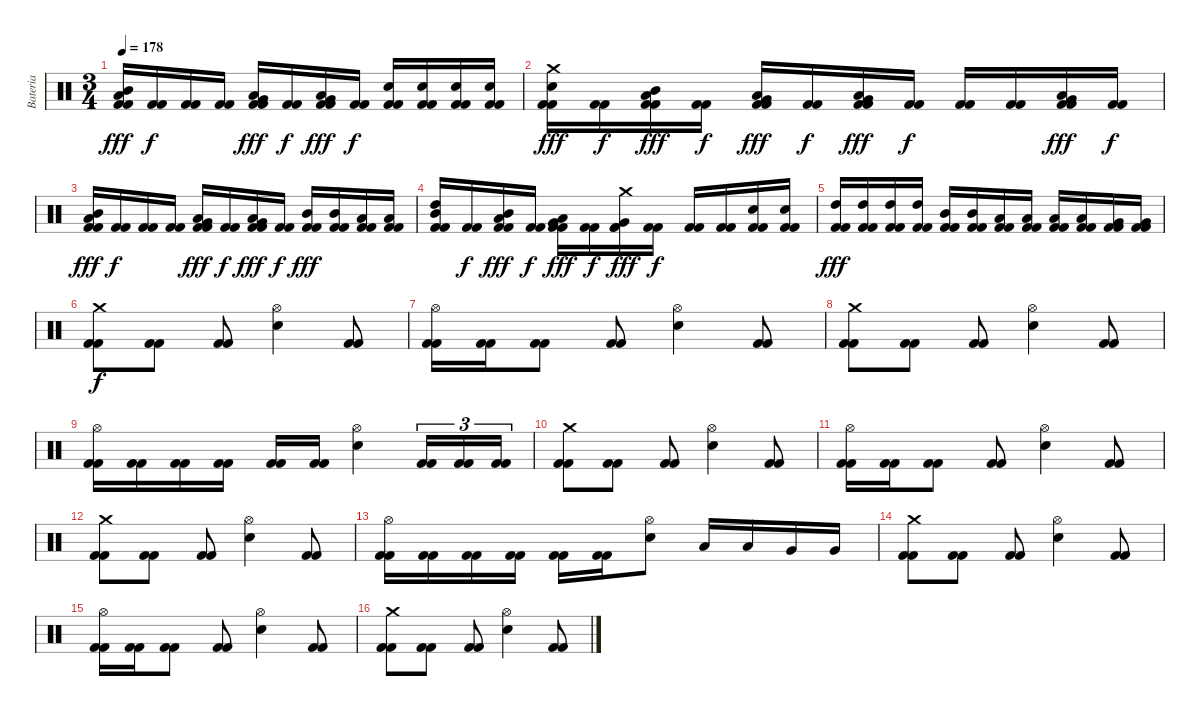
\track ("Bateria" "Bateria") {instrument percussion}
\staff {score}
\articulation defaults
\ts (3 4)
\tempo 178
\clef neutral
\ks c
("Kick (hit) 2" "Kick (hit) 2" "Low Tom (hit)" "Mid Tom (hit)").16{dy fff} ("Kick (hit) 2" "Kick (hit) 2").16{dy f} ("Kick (hit) 2" "Kick (hit) 2").16 ("Kick (hit) 2" "Kick (hit) 2").16 ("Kick (hit) 2" "Kick (hit) 2" "Very Low Tom (hit)" "Low Tom (hit)").16{dy fff} ("Kick (hit) 2" "Kick (hit) 2").16{dy f} ("Kick (hit) 2" "Kick (hit) 2" "Low Floor Tom (hit)" "Very Low Tom (hit)").16{dy fff} ("Kick (hit) 2" "Kick (hit) 2").16{dy f} ("Kick (hit) 2" "Kick (hit) 2" "Snare (hit) 2").16 ("Kick (hit) 2" "Kick (hit) 2" "Snare (hit) 2").16 ("Kick (hit) 2" "Kick (hit) 2" "Snare (hit) 2").16 ("Kick (hit) 2" "Kick (hit) 2" "Snare (hit) 2").16 |
("Kick (hit) 2" "Kick (hit) 2" "Snare (hit) 2" "Crash medium (hit)").16{dy fff} ("Kick (hit) 2" "Kick (hit) 2").16{dy f} ("Kick (hit) 2" "Kick (hit) 2" "Mid Tom (hit)" "Low Tom (hit)").16{dy fff} ("Kick (hit) 2" "Kick (hit) 2").16{dy f} ("Kick (hit) 2" "Kick (hit) 2" "Low Tom (hit)" "Very Low Tom (hit)").16{dy fff} ("Kick (hit) 2" "Kick (hit) 2").16{dy f} ("Kick (hit) 2" "Kick (hit) 2" "Very Low Tom (hit)" "Low Floor Tom (hit)").16{dy fff} ("Kick (hit) 2" "Kick (hit) 2").16{dy f} ("Kick (hit) 2" "Kick (hit) 2").16 ("Kick (hit) 2" "Kick (hit) 2").16 ("Kick (hit) 2" "Kick (hit) 2" "Very Low Tom (hit)" "Low Tom (hit)").16{dy fff} ("Kick (hit) 2" "Kick (hit) 2").16{dy f} |
("Kick (hit) 2" "Kick (hit) 2" "Low Tom (hit)" "Mid Tom (hit)").16{dy fff} ("Kick (hit) 2" "Kick (hit) 2").16{dy f} ("Kick (hit) 2" "Kick (hit) 2").16 ("Kick (hit) 2" "Kick (hit) 2").16 ("Kick (hit) 2" "Kick (hit) 2" "Very Low Tom (hit)" "Low Tom (hit)").16{dy fff} ("Kick (hit) 2" "Kick (hit) 2").16{dy f} ("Kick (hit) 2" "Kick (hit) 2" "Low Floor Tom (hit)" "Very Low Tom (hit)").16{dy fff} ("Kick (hit) 2" "Kick (hit) 2").16{dy f} ("Kick (hit) 2" "Kick (hit) 2" "Mid Tom (hit)").16{dy fff} ("Kick (hit) 2" "Kick (hit) 2" "Mid Tom (hit)").16 ("Kick (hit) 2" "Kick (hit) 2" "Low Tom (hit)").16 ("Kick (hit) 2" "Kick (hit) 2" "Low Tom (hit)").16 |
("Kick (hit) 2" "Kick (hit) 2" "High Tom (hit)" "Mid Tom (hit)").16 ("Kick (hit) 2" "Kick (hit) 2").16{dy f} ("Kick (hit) 2" "Kick (hit) 2" "Mid Tom (hit)" "Low Tom (hit)").16{dy fff} ("Kick (hit) 2" "Kick (hit) 2").16{dy f} ("Kick (hit) 2" "Kick (hit) 2" "Low Tom (hit)" "Very Low Tom (hit)").16{dy fff} ("Kick (hit) 2" "Kick (hit) 2").16{dy f} ("Kick (hit) 2" "Kick (hit) 2" "Very Low Tom (hit)" "Crash medium (hit)").16{dy fff} ("Kick (hit) 2" "Kick (hit) 2").16{dy f} ("Kick (hit) 2" "Kick (hit) 2").16 ("Kick (hit) 2" "Kick (hit) 2").16 ("Kick (hit) 2" "Kick (hit) 2" "Snare (hit) 2").16 ("Kick (hit) 2" "Kick (hit) 2" "Snare (hit) 2").16 |
("Kick (hit) 2" "Kick (hit) 2" "High Tom (hit)").16{dy fff} ("Kick (hit) 2" "Kick (hit) 2" "High Tom (hit)").16 ("Kick (hit) 2" "Kick (hit) 2" "High Tom (hit)").16 ("Kick (hit) 2" "Kick (hit) 2" "High Tom (hit)").16 ("Kick (hit) 2" "Kick (hit) 2" "Mid Tom (hit)").16 ("Kick (hit) 2" "Kick (hit) 2" "Mid Tom (hit)").16 ("Kick (hit) 2" "Kick (hit) 2" "Low Tom (hit)").16 ("Kick (hit) 2" "Kick (hit) 2" "Low Tom (hit)").16 ("Kick (hit) 2" "Kick (hit) 2" "Low Tom (hit)").16 ("Kick (hit) 2" "Kick (hit) 2" "Low Tom (hit)").16 ("Kick (hit) 2" "Kick (hit) 2" "Very Low Tom (hit)").16 ("Kick (hit) 2" "Kick (hit) 2" "Very Low Tom (hit)").16 |
("Kick (hit) 2" "Kick (hit) 2" "Crash medium (hit)").8{dy f} ("Kick (hit) 2" "Kick (hit) 2").8 ("Kick (hit) 2" "Kick (hit) 2").8 ("Snare (hit) 2" "Hi-Hat (open)").4 ("Kick (hit) 2" "Kick (hit) 2").8 |
("Kick (hit) 2" "Kick (hit) 2" "Hi-Hat (open)").16 ("Kick (hit) 2" "Kick (hit) 2").16 ("Kick (hit) 2" "Kick (hit) 2").8 ("Kick (hit) 2" "Kick (hit) 2").8 ("Snare (hit) 2" "Hi-Hat (open)").4 ("Kick (hit) 2" "Kick (hit) 2").8 |
("Kick (hit) 2" "Kick (hit) 2" "Crash medium (hit)").8 ("Kick (hit) 2" "Kick (hit) 2").8 ("Kick (hit) 2" "Kick (hit) 2").8 ("Snare (hit) 2" "Hi-Hat (open)").4 ("Kick (hit) 2" "Kick (hit) 2").8 |
("Kick (hit) 2" "Kick (hit) 2" "Hi-Hat (open)").16 ("Kick (hit) 2" "Kick (hit) 2").16 ("Kick (hit) 2" "Kick (hit) 2").16 ("Kick (hit) 2" "Kick (hit) 2").16 ("Kick (hit) 2" "Kick (hit) 2").16 ("Kick (hit) 2" "Kick (hit) 2").16 ("Snare (hit) 2" "Hi-Hat (open)").4 ("Kick (hit) 2" "Kick (hit) 2").16{tu (3 2)} ("Kick (hit) 2" "Kick (hit) 2").16{tu (3 2)} ("Kick (hit) 2" "Kick (hit) 2").16{tu (3 2)} |
("Kick (hit) 2" "Kick (hit) 2" "Crash medium (hit)").8 ("Kick (hit) 2" "Kick (hit) 2").8 ("Kick (hit) 2" "Kick (hit) 2").8 ("Snare (hit) 2" "Hi-Hat (open)").4 ("Kick (hit) 2" "Kick (hit) 2").8 |
("Kick (hit) 2" "Kick (hit) 2" "Hi-Hat (open)").16 ("Kick (hit) 2" "Kick (hit) 2").16 ("Kick (hit) 2" "Kick (hit) 2").8 ("Kick (hit) 2" "Kick (hit) 2").8 ("Snare (hit) 2" "Hi-Hat (open)").4 ("Kick (hit) 2" "Kick (hit) 2").8 |
("Kick (hit) 2" "Kick (hit) 2" "Crash medium (hit)").8 ("Kick (hit) 2" "Kick (hit) 2").8 ("Kick (hit) 2" "Kick (hit) 2").8 ("Snare (hit) 2" "Hi-Hat (open)").4 ("Kick (hit) 2" "Kick (hit) 2").8 |
("Kick (hit) 2" "Kick (hit) 2" "Hi-Hat (open)").16 ("Kick (hit) 2" "Kick (hit) 2").16 ("Kick (hit) 2" "Kick (hit) 2").16 ("Kick (hit) 2" "Kick (hit) 2").16 ("Kick (hit) 2" "Kick (hit) 2").16 ("Kick (hit) 2" "Kick (hit) 2").16 ("Snare (hit) 2" "Hi-Hat (open)").8 "Low Tom (hit)".16 "Low Tom (hit)".16 "Very Low Tom (hit)".16 "Very Low Tom (hit)".16 |
("Kick (hit) 2" "Kick (hit) 2" "Crash medium (hit)").8 ("Kick (hit) 2" "Kick (hit) 2").8 ("Kick (hit) 2" "Kick (hit) 2").8 ("Snare (hit) 2" "Hi-Hat (open)").4 ("Kick (hit) 2" "Kick (hit) 2").8 |
("Kick (hit) 2" "Kick (hit) 2" "Hi-Hat (open)").16 ("Kick (hit) 2" "Kick (hit) 2").16 ("Kick (hit) 2" "Kick (hit) 2").8 ("Kick (hit) 2" "Kick (hit) 2").8 ("Snare (hit) 2" "Hi-Hat (open)").4 ("Kick (hit) 2" "Kick (hit) 2").8 |
("Kick (hit) 2" "Kick (hit) 2" "Crash medium (hit)").8 ("Kick (hit) 2" "Kick (hit) 2").8 ("Kick (hit) 2" "Kick (hit) 2").8 ("Snare (hit) 2" "Hi-Hat (open)").4 ("Kick (hit) 2" "Kick (hit) 2").8
